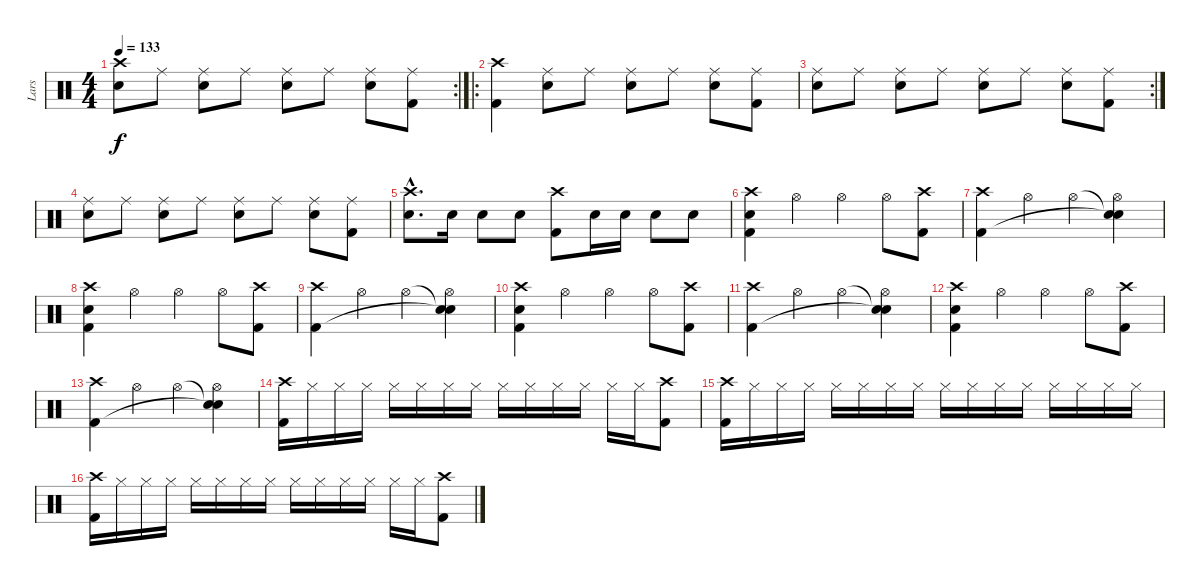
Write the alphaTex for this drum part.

\track ("Lars" "Lars") {instrument percussion}
\staff {score}
\articulation defaults
\rc 2
\ts (4 4)
\tempo 133
\clef neutral
\ks c
("Crash high (hit)" "Electric Snare (hit)").8{dy f} "Ride (middle)".8 ("Ride (middle)" "Electric Snare (hit)").8 "Ride (middle)".8 ("Ride (middle)" "Electric Snare (hit)").8 "Ride (middle)".8 ("Ride (middle)" "Electric Snare (hit)").8 ("Ride (middle)" "Kick (hit) 2").8 |
\ro
("Crash high (hit)" "Kick (hit) 2").4 ("Ride (middle)" "Electric Snare (hit)").8 "Ride (middle)".8 ("Ride (middle)" "Electric Snare (hit)").8 "Ride (middle)".8 ("Ride (middle)" "Electric Snare (hit)").8 ("Ride (middle)" "Kick (hit) 2").8 |
\rc 2
("Ride (middle)" "Electric Snare (hit)").8 "Ride (middle)".8 ("Ride (middle)" "Electric Snare (hit)").8 "Ride (middle)".8 ("Ride (middle)" "Electric Snare (hit)").8 "Ride (middle)".8 ("Ride (middle)" "Electric Snare (hit)").8 ("Ride (middle)" "Kick (hit) 2").8 |
("Ride (middle)" "Electric Snare (hit)").8 "Ride (middle)".8 ("Ride (middle)" "Electric Snare (hit)").8 "Ride (middle)".8 ("Ride (middle)" "Electric Snare (hit)").8 "Ride (middle)".8 ("Ride (middle)" "Electric Snare (hit)").8 ("Ride (middle)" "Kick (hit) 2").8 |
("Crash high (hit)"{hac} "Electric Snare (hit)"{hac}).8{d} "Electric Snare (hit)".16 "Electric Snare (hit)".8 "Electric Snare (hit)".8 ("Crash high (hit)" "Kick (hit) 2").8 "Electric Snare (hit)".16 "Electric Snare (hit)".16 "Electric Snare (hit)".8 "Electric Snare (hit)".8 |
("Crash high (hit)" "Electric Snare (hit)" "Kick (hit) 2").4 "Hi-Hat (open)".4 "Hi-Hat (open)".4 "Hi-Hat (open)".8 ("Crash high (hit)" "Kick (hit) 2").8 |
("Crash high (hit)" "Kick (hit) 2").4 "Hi-Hat (open)".4 "Hi-Hat (open)".4 ("Snare (hit)"{t} "Snare (hit)"{t} "Hi-Hat (open)").4 |
("Crash high (hit)" "Electric Snare (hit)" "Kick (hit) 2").4 "Hi-Hat (open)".4 "Hi-Hat (open)".4 "Hi-Hat (open)".8 ("Crash high (hit)" "Kick (hit) 2").8 |
("Crash high (hit)" "Kick (hit) 2").4 "Hi-Hat (open)".4 "Hi-Hat (open)".4 ("Snare (hit)"{t} "Snare (hit)"{t} "Hi-Hat (open)").4 |
("Crash high (hit)" "Electric Snare (hit)" "Kick (hit) 2").4 "Hi-Hat (open)".4 "Hi-Hat (open)".4 "Hi-Hat (open)".8 ("Crash high (hit)" "Kick (hit) 2").8 |
("Crash high (hit)" "Kick (hit) 2").4 "Hi-Hat (open)".4 "Hi-Hat (open)".4 ("Snare (hit)"{t} "Snare (hit)"{t} "Hi-Hat (open)").4 |
("Crash high (hit)" "Electric Snare (hit)" "Kick (hit) 2").4 "Hi-Hat (open)".4 "Hi-Hat (open)".4 "Hi-Hat (open)".8 ("Crash high (hit)" "Kick (hit) 2").8 |
("Crash high (hit)" "Kick (hit) 2").4 "Hi-Hat (open)".4 "Hi-Hat (open)".4 ("Snare (hit)"{t} "Snare (hit)"{t} "Hi-Hat (open)").4 |
("Crash high (hit)" "Kick (hit) 2").16 "Hi-Hat (closed)".16 "Hi-Hat (closed)".16 "Hi-Hat (closed)".16 "Hi-Hat (closed)".16 "Hi-Hat (closed)".16 "Hi-Hat (closed)".16 "Hi-Hat (closed)".16 "Hi-Hat (closed)".16 "Hi-Hat (closed)".16 "Hi-Hat (closed)".16 "Hi-Hat (closed)".16 "Hi-Hat (closed)".16 "Hi-Hat (closed)".16 ("Crash high (hit)" "Kick (hit) 2").8 |
("Crash high (hit)" "Kick (hit) 2").16 "Hi-Hat (closed)".16 "Hi-Hat (closed)".16 "Hi-Hat (closed)".16 "Hi-Hat (closed)".16 "Hi-Hat (closed)".16 "Hi-Hat (closed)".16 "Hi-Hat (closed)".16 "Hi-Hat (closed)".16 "Hi-Hat (closed)".16 "Hi-Hat (closed)".16 "Hi-Hat (closed)".16 "Hi-Hat (closed)".16 "Hi-Hat (closed)".16 "Hi-Hat (closed)".16 "Hi-Hat (closed)".16 |
("Crash high (hit)" "Kick (hit) 2").16 "Hi-Hat (closed)".16 "Hi-Hat (closed)".16 "Hi-Hat (closed)".16 "Hi-Hat (closed)".16 "Hi-Hat (closed)".16 "Hi-Hat (closed)".16 "Hi-Hat (closed)".16 "Hi-Hat (closed)".16 "Hi-Hat (closed)".16 "Hi-Hat (closed)".16 "Hi-Hat (closed)".16 "Hi-Hat (closed)".16 "Hi-Hat (closed)".16 ("Crash high (hit)" "Kick (hit) 2").8
